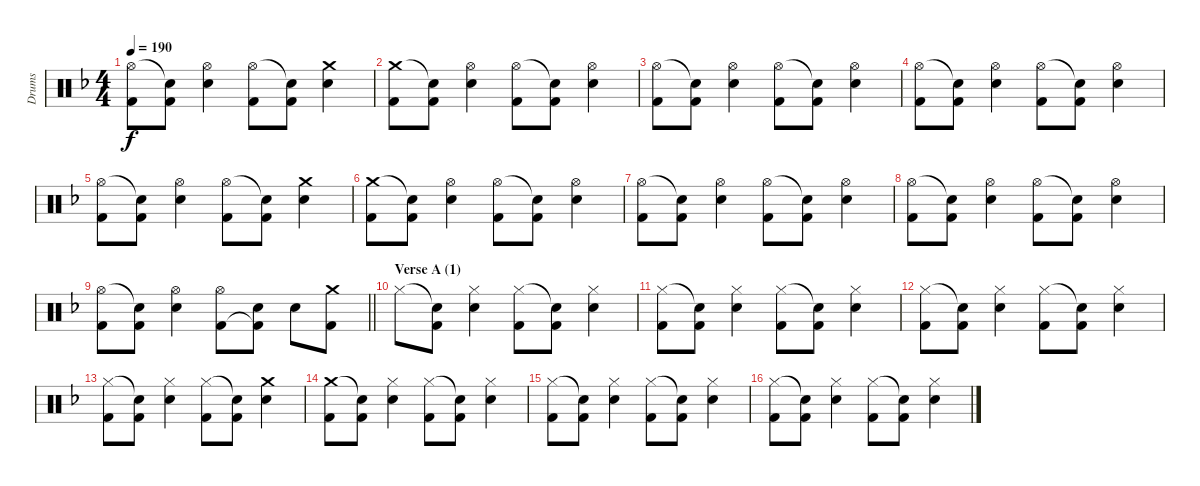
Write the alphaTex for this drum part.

\track ("Drums" "Drums") {instrument percussion}
\staff {score}
\articulation defaults
\ts (4 4)
\tempo 190
\clef neutral
\ks dminor
("Hi-Hat (open)" "Kick (hit) 2").8{dy f} ("Snare (hit)"{t} "Kick (hit) 2").8 ("Hi-Hat (open)" "Electric Snare (hit)").4 ("Hi-Hat (open)" "Kick (hit) 2").8 ("Snare (hit)"{t} "Kick (hit) 2").8 ("Crash medium (hit)" "Electric Snare (hit)").4 |
("Crash medium (hit)" "Kick (hit) 2").8 ("Snare (hit)"{t} "Kick (hit) 2").8 ("Hi-Hat (open)" "Electric Snare (hit)").4 ("Hi-Hat (open)" "Kick (hit) 2").8 ("Snare (hit)"{t} "Kick (hit) 2").8 ("Hi-Hat (open)" "Electric Snare (hit)").4 |
("Hi-Hat (open)" "Kick (hit) 2").8 ("Snare (hit)"{t} "Kick (hit) 2").8 ("Hi-Hat (open)" "Electric Snare (hit)").4 ("Hi-Hat (open)" "Kick (hit) 2").8 ("Snare (hit)"{t} "Kick (hit) 2").8 ("Hi-Hat (open)" "Electric Snare (hit)").4 |
("Hi-Hat (open)" "Kick (hit) 2").8 ("Snare (hit)"{t} "Kick (hit) 2").8 ("Hi-Hat (open)" "Electric Snare (hit)").4 ("Hi-Hat (open)" "Kick (hit) 2").8 ("Snare (hit)"{t} "Kick (hit) 2").8 ("Hi-Hat (open)" "Electric Snare (hit)").4 |
("Hi-Hat (open)" "Kick (hit) 2").8 ("Snare (hit)"{t} "Kick (hit) 2").8 ("Hi-Hat (open)" "Electric Snare (hit)").4 ("Hi-Hat (open)" "Kick (hit) 2").8 ("Snare (hit)"{t} "Kick (hit) 2").8 ("Crash medium (hit)" "Electric Snare (hit)").4 |
("Crash medium (hit)" "Kick (hit) 2").8 ("Snare (hit)"{t} "Kick (hit) 2").8 ("Hi-Hat (open)" "Electric Snare (hit)").4 ("Hi-Hat (open)" "Kick (hit) 2").8 ("Snare (hit)"{t} "Kick (hit) 2").8 ("Hi-Hat (open)" "Electric Snare (hit)").4 |
("Hi-Hat (open)" "Kick (hit) 2").8 ("Snare (hit)"{t} "Kick (hit) 2").8 ("Hi-Hat (open)" "Electric Snare (hit)").4 ("Hi-Hat (open)" "Kick (hit) 2").8 ("Snare (hit)"{t} "Kick (hit) 2").8 ("Hi-Hat (open)" "Electric Snare (hit)").4 |
("Hi-Hat (open)" "Kick (hit) 2").8 ("Snare (hit)"{t} "Kick (hit) 2").8 ("Hi-Hat (open)" "Electric Snare (hit)").4 ("Hi-Hat (open)" "Kick (hit) 2").8 ("Snare (hit)"{t} "Kick (hit) 2").8 ("Hi-Hat (open)" "Electric Snare (hit)").4 |
\barLineRight lightlight
("Hi-Hat (open)" "Kick (hit) 2").8 ("Snare (hit)"{t} "Kick (hit) 2").8 ("Hi-Hat (open)" "Electric Snare (hit)").4 ("Hi-Hat (open)" "Kick (hit) 2").8 ("Electric Snare (hit)" "Kick (hit) 2"{t}).8 "Electric Snare (hit)".8 ("Crash medium (hit)" "Kick (hit) 2").8 |
\section ("" "Verse A (1)")
"Hi-Hat (closed)".8 ("Snare (hit)"{t} "Kick (hit) 2").8 ("Hi-Hat (closed)" "Electric Snare (hit)").4 ("Hi-Hat (closed)" "Kick (hit) 2").8 ("Snare (hit)"{t} "Kick (hit) 2").8 ("Hi-Hat (closed)" "Electric Snare (hit)").4 |
("Hi-Hat (closed)" "Kick (hit) 2").8 ("Snare (hit)"{t} "Kick (hit) 2").8 ("Hi-Hat (closed)" "Electric Snare (hit)").4 ("Hi-Hat (closed)" "Kick (hit) 2").8 ("Snare (hit)"{t} "Kick (hit) 2").8 ("Hi-Hat (closed)" "Electric Snare (hit)").4 |
("Hi-Hat (closed)" "Kick (hit) 2").8 ("Snare (hit)"{t} "Kick (hit) 2").8 ("Hi-Hat (closed)" "Electric Snare (hit)").4 ("Hi-Hat (closed)" "Kick (hit) 2").8 ("Snare (hit)"{t} "Kick (hit) 2").8 ("Hi-Hat (closed)" "Electric Snare (hit)").4 |
("Hi-Hat (closed)" "Kick (hit) 2").8 ("Snare (hit)"{t} "Kick (hit) 2").8 ("Hi-Hat (closed)" "Electric Snare (hit)").4 ("Hi-Hat (closed)" "Kick (hit) 2").8 ("Snare (hit)"{t} "Kick (hit) 2").8 ("Crash medium (hit)" "Electric Snare (hit)").4 |
("Crash medium (hit)" "Kick (hit) 2").8 ("Snare (hit)"{t} "Kick (hit) 2").8 ("Hi-Hat (closed)" "Electric Snare (hit)").4 ("Hi-Hat (closed)" "Kick (hit) 2").8 ("Snare (hit)"{t} "Kick (hit) 2").8 ("Hi-Hat (closed)" "Electric Snare (hit)").4 |
("Hi-Hat (closed)" "Kick (hit) 2").8 ("Snare (hit)"{t} "Kick (hit) 2").8 ("Hi-Hat (closed)" "Electric Snare (hit)").4 ("Hi-Hat (closed)" "Kick (hit) 2").8 ("Snare (hit)"{t} "Kick (hit) 2").8 ("Hi-Hat (closed)" "Electric Snare (hit)").4 |
("Hi-Hat (closed)" "Kick (hit) 2").8 ("Snare (hit)"{t} "Kick (hit) 2").8 ("Hi-Hat (closed)" "Electric Snare (hit)").4 ("Hi-Hat (closed)" "Kick (hit) 2").8 ("Snare (hit)"{t} "Kick (hit) 2").8 ("Hi-Hat (closed)" "Electric Snare (hit)").4
